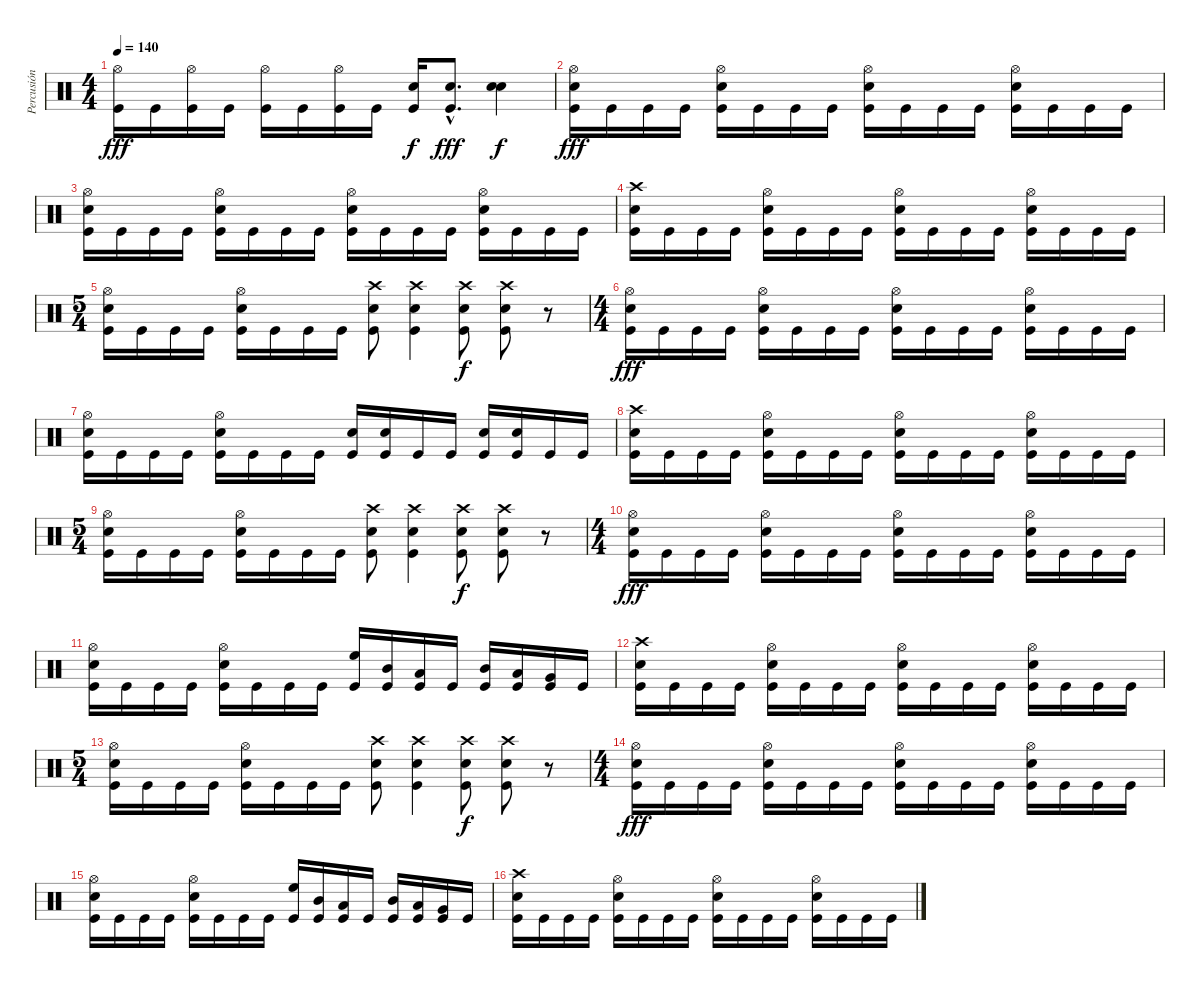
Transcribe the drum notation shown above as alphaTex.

\track ("Percusión" "Percusión") {instrument percussion}
\staff {score}
\articulation defaults
\ts (4 4)
\tempo 140
\clef neutral
\ks c
("Hi-Hat (open)" "Kick (hit)").16{dy fff} "Kick (hit)".16 ("Hi-Hat (open)" "Kick (hit)").16 "Kick (hit)".16 ("Hi-Hat (open)" "Kick (hit)").16 "Kick (hit)".16 ("Hi-Hat (open)" "Kick (hit)").16 "Kick (hit)".16 ("Electric Snare (hit)" "Kick (hit)").16{dy f} ("Electric Snare (hit)"{hac} "Kick (hit)"{hac}).8{d dy fff} ("Electric Snare (hit)" "Electric Snare (hit)").4{bd 480 dy f} |
("Hi-Hat (open)" "Electric Snare (hit)" "Kick (hit)").16{dy fff} "Kick (hit)".16 "Kick (hit)".16 "Kick (hit)".16 ("Hi-Hat (open)" "Electric Snare (hit)" "Kick (hit)").16 "Kick (hit)".16 "Kick (hit)".16 "Kick (hit)".16 ("Hi-Hat (open)" "Electric Snare (hit)" "Kick (hit)").16 "Kick (hit)".16 "Kick (hit)".16 "Kick (hit)".16 ("Hi-Hat (open)" "Electric Snare (hit)" "Kick (hit)").16 "Kick (hit)".16 "Kick (hit)".16 "Kick (hit)".16 |
("Hi-Hat (open)" "Electric Snare (hit)" "Kick (hit)").16 "Kick (hit)".16 "Kick (hit)".16 "Kick (hit)".16 ("Hi-Hat (open)" "Electric Snare (hit)" "Kick (hit)").16 "Kick (hit)".16 "Kick (hit)".16 "Kick (hit)".16 ("Hi-Hat (open)" "Electric Snare (hit)" "Kick (hit)").16 "Kick (hit)".16 "Kick (hit)".16 "Kick (hit)".16 ("Hi-Hat (open)" "Electric Snare (hit)" "Kick (hit)").16 "Kick (hit)".16 "Kick (hit)".16 "Kick (hit)".16 |
("Crash high (hit)" "Electric Snare (hit)" "Kick (hit)").16 "Kick (hit)".16 "Kick (hit)".16 "Kick (hit)".16 ("Hi-Hat (open)" "Electric Snare (hit)" "Kick (hit)").16 "Kick (hit)".16 "Kick (hit)".16 "Kick (hit)".16 ("Hi-Hat (open)" "Electric Snare (hit)" "Kick (hit)").16 "Kick (hit)".16 "Kick (hit)".16 "Kick (hit)".16 ("Hi-Hat (open)" "Electric Snare (hit)" "Kick (hit)").16 "Kick (hit)".16 "Kick (hit)".16 "Kick (hit)".16 |
\ts (5 4)
("Hi-Hat (open)" "Electric Snare (hit)" "Kick (hit)").16 "Kick (hit)".16 "Kick (hit)".16 "Kick (hit)".16 ("Hi-Hat (open)" "Electric Snare (hit)" "Kick (hit)").16 "Kick (hit)".16 "Kick (hit)".16 "Kick (hit)".16 ("Crash high (hit)" "Electric Snare (hit)" "Kick (hit)").8 ("Crash high (hit)" "Electric Snare (hit)" "Kick (hit)").4 ("Crash high (hit)" "Electric Snare (hit)" "Kick (hit)").8{dy f} ("Crash high (hit)" "Electric Snare (hit)" "Kick (hit)").8 r.8 |
\ts (4 4)
("Hi-Hat (open)" "Electric Snare (hit)" "Kick (hit)").16{dy fff} "Kick (hit)".16 "Kick (hit)".16 "Kick (hit)".16 ("Hi-Hat (open)" "Electric Snare (hit)" "Kick (hit)").16 "Kick (hit)".16 "Kick (hit)".16 "Kick (hit)".16 ("Hi-Hat (open)" "Electric Snare (hit)" "Kick (hit)").16 "Kick (hit)".16 "Kick (hit)".16 "Kick (hit)".16 ("Hi-Hat (open)" "Electric Snare (hit)" "Kick (hit)").16 "Kick (hit)".16 "Kick (hit)".16 "Kick (hit)".16 |
("Hi-Hat (open)" "Electric Snare (hit)" "Kick (hit)").16 "Kick (hit)".16 "Kick (hit)".16 "Kick (hit)".16 ("Hi-Hat (open)" "Electric Snare (hit)" "Kick (hit)").16 "Kick (hit)".16 "Kick (hit)".16 "Kick (hit)".16 ("Electric Snare (hit)" "Kick (hit)").16 ("Electric Snare (hit)" "Kick (hit)").16 "Kick (hit)".16 "Kick (hit)".16 ("Electric Snare (hit)" "Kick (hit)").16 ("Electric Snare (hit)" "Kick (hit)").16 "Kick (hit)".16 "Kick (hit)".16 |
("Crash high (hit)" "Electric Snare (hit)" "Kick (hit)").16 "Kick (hit)".16 "Kick (hit)".16 "Kick (hit)".16 ("Hi-Hat (open)" "Electric Snare (hit)" "Kick (hit)").16 "Kick (hit)".16 "Kick (hit)".16 "Kick (hit)".16 ("Hi-Hat (open)" "Electric Snare (hit)" "Kick (hit)").16 "Kick (hit)".16 "Kick (hit)".16 "Kick (hit)".16 ("Hi-Hat (open)" "Electric Snare (hit)" "Kick (hit)").16 "Kick (hit)".16 "Kick (hit)".16 "Kick (hit)".16 |
\ts (5 4)
("Hi-Hat (open)" "Electric Snare (hit)" "Kick (hit)").16 "Kick (hit)".16 "Kick (hit)".16 "Kick (hit)".16 ("Hi-Hat (open)" "Electric Snare (hit)" "Kick (hit)").16 "Kick (hit)".16 "Kick (hit)".16 "Kick (hit)".16 ("Crash high (hit)" "Electric Snare (hit)" "Kick (hit)").8 ("Crash high (hit)" "Electric Snare (hit)" "Kick (hit)").4 ("Crash high (hit)" "Electric Snare (hit)" "Kick (hit)").8{dy f} ("Crash high (hit)" "Electric Snare (hit)" "Kick (hit)").8 r.8 |
\ts (4 4)
("Hi-Hat (open)" "Electric Snare (hit)" "Kick (hit)").16{dy fff} "Kick (hit)".16 "Kick (hit)".16 "Kick (hit)".16 ("Hi-Hat (open)" "Electric Snare (hit)" "Kick (hit)").16 "Kick (hit)".16 "Kick (hit)".16 "Kick (hit)".16 ("Hi-Hat (open)" "Electric Snare (hit)" "Kick (hit)").16 "Kick (hit)".16 "Kick (hit)".16 "Kick (hit)".16 ("Hi-Hat (open)" "Electric Snare (hit)" "Kick (hit)").16 "Kick (hit)".16 "Kick (hit)".16 "Kick (hit)".16 |
("Hi-Hat (open)" "Electric Snare (hit)" "Kick (hit)").16 "Kick (hit)".16 "Kick (hit)".16 "Kick (hit)".16 ("Hi-Hat (open)" "Electric Snare (hit)" "Kick (hit)").16 "Kick (hit)".16 "Kick (hit)".16 "Kick (hit)".16 ("High Floor Tom (hit)" "Kick (hit)").16 ("Mid Tom (hit)" "Kick (hit)").16 ("Low Tom (hit)" "Kick (hit)").16 "Kick (hit)".16 ("Mid Tom (hit)" "Kick (hit)").16 ("Low Tom (hit)" "Kick (hit)").16 ("Very Low Tom (hit)" "Kick (hit)").16 "Kick (hit)".16 |
("Crash high (hit)" "Electric Snare (hit)" "Kick (hit)").16 "Kick (hit)".16 "Kick (hit)".16 "Kick (hit)".16 ("Hi-Hat (open)" "Electric Snare (hit)" "Kick (hit)").16 "Kick (hit)".16 "Kick (hit)".16 "Kick (hit)".16 ("Hi-Hat (open)" "Electric Snare (hit)" "Kick (hit)").16 "Kick (hit)".16 "Kick (hit)".16 "Kick (hit)".16 ("Hi-Hat (open)" "Electric Snare (hit)" "Kick (hit)").16 "Kick (hit)".16 "Kick (hit)".16 "Kick (hit)".16 |
\ts (5 4)
("Hi-Hat (open)" "Electric Snare (hit)" "Kick (hit)").16 "Kick (hit)".16 "Kick (hit)".16 "Kick (hit)".16 ("Hi-Hat (open)" "Electric Snare (hit)" "Kick (hit)").16 "Kick (hit)".16 "Kick (hit)".16 "Kick (hit)".16 ("Crash high (hit)" "Electric Snare (hit)" "Kick (hit)").8 ("Crash high (hit)" "Electric Snare (hit)" "Kick (hit)").4 ("Crash high (hit)" "Electric Snare (hit)" "Kick (hit)").8{dy f} ("Crash high (hit)" "Electric Snare (hit)" "Kick (hit)").8 r.8 |
\ts (4 4)
("Hi-Hat (open)" "Electric Snare (hit)" "Kick (hit)").16{dy fff} "Kick (hit)".16 "Kick (hit)".16 "Kick (hit)".16 ("Hi-Hat (open)" "Electric Snare (hit)" "Kick (hit)").16 "Kick (hit)".16 "Kick (hit)".16 "Kick (hit)".16 ("Hi-Hat (open)" "Electric Snare (hit)" "Kick (hit)").16 "Kick (hit)".16 "Kick (hit)".16 "Kick (hit)".16 ("Hi-Hat (open)" "Electric Snare (hit)" "Kick (hit)").16 "Kick (hit)".16 "Kick (hit)".16 "Kick (hit)".16 |
("Hi-Hat (open)" "Electric Snare (hit)" "Kick (hit)").16 "Kick (hit)".16 "Kick (hit)".16 "Kick (hit)".16 ("Hi-Hat (open)" "Electric Snare (hit)" "Kick (hit)").16 "Kick (hit)".16 "Kick (hit)".16 "Kick (hit)".16 ("High Floor Tom (hit)" "Kick (hit)").16 ("Mid Tom (hit)" "Kick (hit)").16 ("Low Tom (hit)" "Kick (hit)").16 "Kick (hit)".16 ("Mid Tom (hit)" "Kick (hit)").16 ("Low Tom (hit)" "Kick (hit)").16 ("Very Low Tom (hit)" "Kick (hit)").16 "Kick (hit)".16 |
("Crash high (hit)" "Electric Snare (hit)" "Kick (hit)").16 "Kick (hit)".16 "Kick (hit)".16 "Kick (hit)".16 ("Hi-Hat (open)" "Electric Snare (hit)" "Kick (hit)").16 "Kick (hit)".16 "Kick (hit)".16 "Kick (hit)".16 ("Hi-Hat (open)" "Electric Snare (hit)" "Kick (hit)").16 "Kick (hit)".16 "Kick (hit)".16 "Kick (hit)".16 ("Hi-Hat (open)" "Electric Snare (hit)" "Kick (hit)").16 "Kick (hit)".16 "Kick (hit)".16 "Kick (hit)".16
